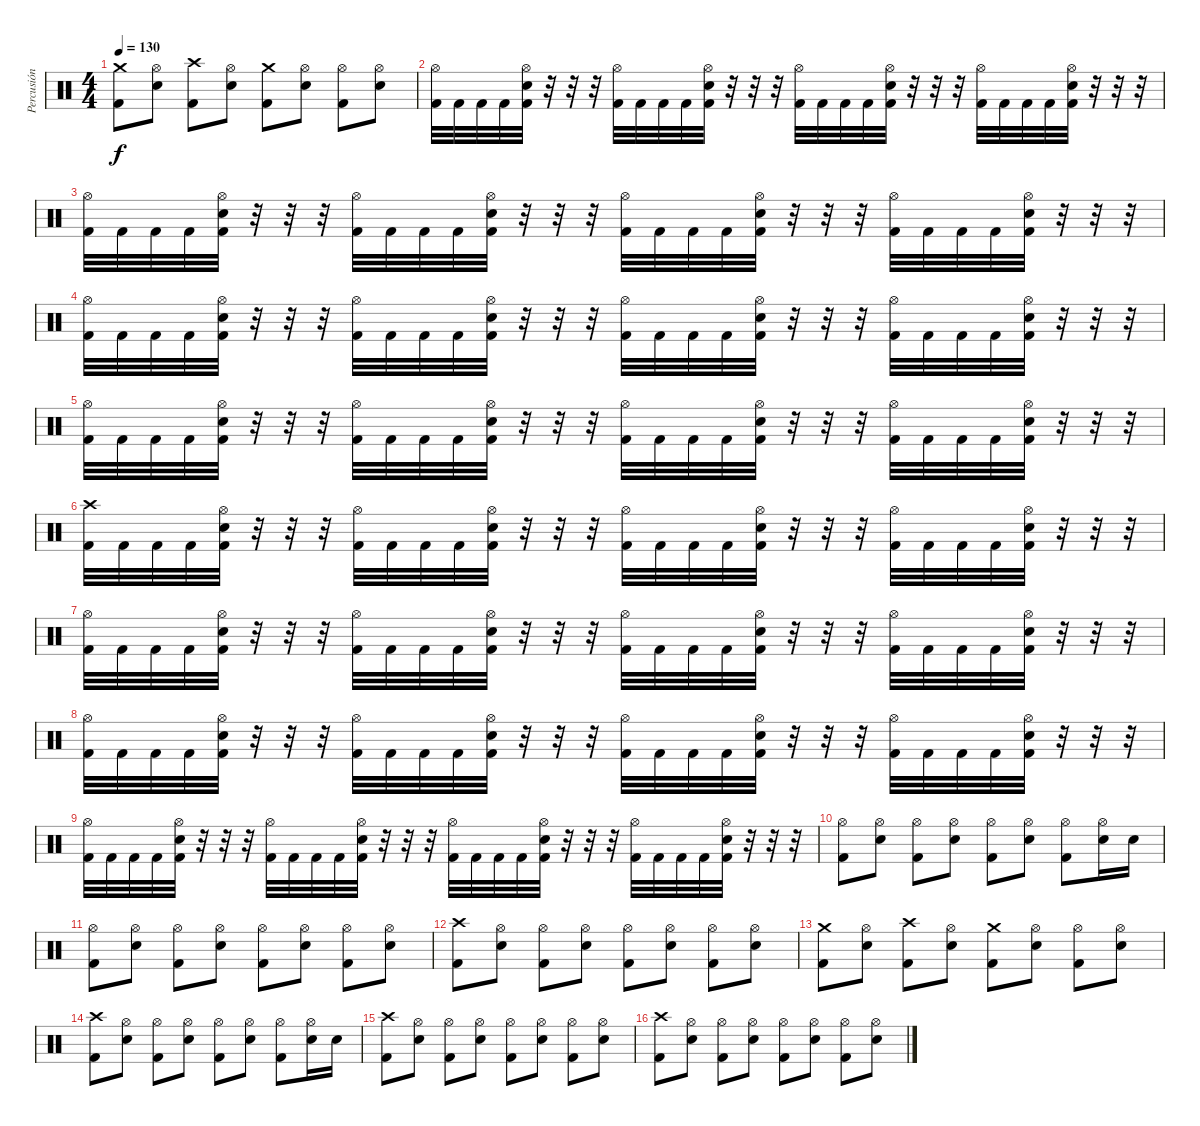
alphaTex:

\track ("Percusión" "Percusión") {instrument percussion}
\staff {score}
\articulation defaults
\ts (4 4)
\tempo 130
\clef neutral
\ks c
("Crash medium (hit)" "Kick (hit) 2").8{dy f} ("Hi-Hat (open)" "Snare (hit) 2").8 ("Crash high (hit)" "Kick (hit) 2").8 ("Hi-Hat (open)" "Snare (hit) 2").8 ("Crash medium (hit)" "Kick (hit) 2").8 ("Hi-Hat (open)" "Snare (hit) 2").8 ("Hi-Hat (open)" "Kick (hit) 2").8 ("Hi-Hat (open)" "Snare (hit) 2").8 |
("Hi-Hat (open)" "Kick (hit) 2").32 "Kick (hit) 2".32 "Kick (hit) 2".32 "Kick (hit) 2".32 ("Hi-Hat (open)" "Snare (hit) 2" "Kick (hit) 2").32 r.32 r.32 r.32 ("Hi-Hat (open)" "Kick (hit) 2").32 "Kick (hit) 2".32 "Kick (hit) 2".32 "Kick (hit) 2".32 ("Hi-Hat (open)" "Snare (hit) 2" "Kick (hit) 2").32 r.32 r.32 r.32 ("Hi-Hat (open)" "Kick (hit) 2").32 "Kick (hit) 2".32 "Kick (hit) 2".32 "Kick (hit) 2".32 ("Hi-Hat (open)" "Snare (hit) 2" "Kick (hit) 2").32 r.32 r.32 r.32 ("Hi-Hat (open)" "Kick (hit) 2").32 "Kick (hit) 2".32 "Kick (hit) 2".32 "Kick (hit) 2".32 ("Hi-Hat (open)" "Snare (hit) 2" "Kick (hit) 2").32 r.32 r.32 r.32 |
("Hi-Hat (open)" "Kick (hit) 2").32 "Kick (hit) 2".32 "Kick (hit) 2".32 "Kick (hit) 2".32 ("Hi-Hat (open)" "Snare (hit) 2" "Kick (hit) 2").32 r.32 r.32 r.32 ("Hi-Hat (open)" "Kick (hit) 2").32 "Kick (hit) 2".32 "Kick (hit) 2".32 "Kick (hit) 2".32 ("Hi-Hat (open)" "Snare (hit) 2" "Kick (hit) 2").32 r.32 r.32 r.32 ("Hi-Hat (open)" "Kick (hit) 2").32 "Kick (hit) 2".32 "Kick (hit) 2".32 "Kick (hit) 2".32 ("Hi-Hat (open)" "Snare (hit) 2" "Kick (hit) 2").32 r.32 r.32 r.32 ("Hi-Hat (open)" "Kick (hit) 2").32 "Kick (hit) 2".32 "Kick (hit) 2".32 "Kick (hit) 2".32 ("Hi-Hat (open)" "Snare (hit) 2" "Kick (hit) 2").32 r.32 r.32 r.32 |
("Hi-Hat (open)" "Kick (hit) 2").32 "Kick (hit) 2".32 "Kick (hit) 2".32 "Kick (hit) 2".32 ("Hi-Hat (open)" "Snare (hit) 2" "Kick (hit) 2").32 r.32 r.32 r.32 ("Hi-Hat (open)" "Kick (hit) 2").32 "Kick (hit) 2".32 "Kick (hit) 2".32 "Kick (hit) 2".32 ("Hi-Hat (open)" "Snare (hit) 2" "Kick (hit) 2").32 r.32 r.32 r.32 ("Hi-Hat (open)" "Kick (hit) 2").32 "Kick (hit) 2".32 "Kick (hit) 2".32 "Kick (hit) 2".32 ("Hi-Hat (open)" "Snare (hit) 2" "Kick (hit) 2").32 r.32 r.32 r.32 ("Hi-Hat (open)" "Kick (hit) 2").32 "Kick (hit) 2".32 "Kick (hit) 2".32 "Kick (hit) 2".32 ("Hi-Hat (open)" "Snare (hit) 2" "Kick (hit) 2").32 r.32 r.32 r.32 |
("Hi-Hat (open)" "Kick (hit) 2").32 "Kick (hit) 2".32 "Kick (hit) 2".32 "Kick (hit) 2".32 ("Hi-Hat (open)" "Snare (hit) 2" "Kick (hit) 2").32 r.32 r.32 r.32 ("Hi-Hat (open)" "Kick (hit) 2").32 "Kick (hit) 2".32 "Kick (hit) 2".32 "Kick (hit) 2".32 ("Hi-Hat (open)" "Snare (hit) 2" "Kick (hit) 2").32 r.32 r.32 r.32 ("Hi-Hat (open)" "Kick (hit) 2").32 "Kick (hit) 2".32 "Kick (hit) 2".32 "Kick (hit) 2".32 ("Hi-Hat (open)" "Snare (hit) 2" "Kick (hit) 2").32 r.32 r.32 r.32 ("Hi-Hat (open)" "Kick (hit) 2").32 "Kick (hit) 2".32 "Kick (hit) 2".32 "Kick (hit) 2".32 ("Hi-Hat (open)" "Snare (hit) 2" "Kick (hit) 2").32 r.32 r.32 r.32 |
("Crash high (hit)" "Kick (hit) 2").32 "Kick (hit) 2".32 "Kick (hit) 2".32 "Kick (hit) 2".32 ("Hi-Hat (open)" "Snare (hit) 2" "Kick (hit) 2").32 r.32 r.32 r.32 ("Hi-Hat (open)" "Kick (hit) 2").32 "Kick (hit) 2".32 "Kick (hit) 2".32 "Kick (hit) 2".32 ("Hi-Hat (open)" "Snare (hit) 2" "Kick (hit) 2").32 r.32 r.32 r.32 ("Hi-Hat (open)" "Kick (hit) 2").32 "Kick (hit) 2".32 "Kick (hit) 2".32 "Kick (hit) 2".32 ("Hi-Hat (open)" "Snare (hit) 2" "Kick (hit) 2").32 r.32 r.32 r.32 ("Hi-Hat (open)" "Kick (hit) 2").32 "Kick (hit) 2".32 "Kick (hit) 2".32 "Kick (hit) 2".32 ("Hi-Hat (open)" "Snare (hit) 2" "Kick (hit) 2").32 r.32 r.32 r.32 |
("Hi-Hat (open)" "Kick (hit) 2").32 "Kick (hit) 2".32 "Kick (hit) 2".32 "Kick (hit) 2".32 ("Hi-Hat (open)" "Snare (hit) 2" "Kick (hit) 2").32 r.32 r.32 r.32 ("Hi-Hat (open)" "Kick (hit) 2").32 "Kick (hit) 2".32 "Kick (hit) 2".32 "Kick (hit) 2".32 ("Hi-Hat (open)" "Snare (hit) 2" "Kick (hit) 2").32 r.32 r.32 r.32 ("Hi-Hat (open)" "Kick (hit) 2").32 "Kick (hit) 2".32 "Kick (hit) 2".32 "Kick (hit) 2".32 ("Hi-Hat (open)" "Snare (hit) 2" "Kick (hit) 2").32 r.32 r.32 r.32 ("Hi-Hat (open)" "Kick (hit) 2").32 "Kick (hit) 2".32 "Kick (hit) 2".32 "Kick (hit) 2".32 ("Hi-Hat (open)" "Snare (hit) 2" "Kick (hit) 2").32 r.32 r.32 r.32 |
("Hi-Hat (open)" "Kick (hit) 2").32 "Kick (hit) 2".32 "Kick (hit) 2".32 "Kick (hit) 2".32 ("Hi-Hat (open)" "Snare (hit) 2" "Kick (hit) 2").32 r.32 r.32 r.32 ("Hi-Hat (open)" "Kick (hit) 2").32 "Kick (hit) 2".32 "Kick (hit) 2".32 "Kick (hit) 2".32 ("Hi-Hat (open)" "Snare (hit) 2" "Kick (hit) 2").32 r.32 r.32 r.32 ("Hi-Hat (open)" "Kick (hit) 2").32 "Kick (hit) 2".32 "Kick (hit) 2".32 "Kick (hit) 2".32 ("Hi-Hat (open)" "Snare (hit) 2" "Kick (hit) 2").32 r.32 r.32 r.32 ("Hi-Hat (open)" "Kick (hit) 2").32 "Kick (hit) 2".32 "Kick (hit) 2".32 "Kick (hit) 2".32 ("Hi-Hat (open)" "Snare (hit) 2" "Kick (hit) 2").32 r.32 r.32 r.32 |
("Hi-Hat (open)" "Kick (hit) 2").32 "Kick (hit) 2".32 "Kick (hit) 2".32 "Kick (hit) 2".32 ("Hi-Hat (open)" "Snare (hit) 2" "Kick (hit) 2").32 r.32 r.32 r.32 ("Hi-Hat (open)" "Kick (hit) 2").32 "Kick (hit) 2".32 "Kick (hit) 2".32 "Kick (hit) 2".32 ("Hi-Hat (open)" "Snare (hit) 2" "Kick (hit) 2").32 r.32 r.32 r.32 ("Hi-Hat (open)" "Kick (hit) 2").32 "Kick (hit) 2".32 "Kick (hit) 2".32 "Kick (hit) 2".32 ("Hi-Hat (open)" "Snare (hit) 2" "Kick (hit) 2").32 r.32 r.32 r.32 ("Hi-Hat (open)" "Kick (hit) 2").32 "Kick (hit) 2".32 "Kick (hit) 2".32 "Kick (hit) 2".32 ("Hi-Hat (open)" "Snare (hit) 2" "Kick (hit) 2").32 r.32 r.32 r.32 |
("Hi-Hat (open)" "Kick (hit) 2").8 ("Hi-Hat (open)" "Snare (hit) 2").8 ("Hi-Hat (open)" "Kick (hit) 2").8 ("Hi-Hat (open)" "Snare (hit) 2").8 ("Hi-Hat (open)" "Kick (hit) 2").8 ("Hi-Hat (open)" "Snare (hit) 2").8 ("Hi-Hat (open)" "Kick (hit) 2").8 ("Hi-Hat (open)" "Snare (hit) 2").16 "Snare (hit) 2".16 |
("Hi-Hat (open)" "Kick (hit) 2").8 ("Hi-Hat (open)" "Snare (hit) 2").8 ("Hi-Hat (open)" "Kick (hit) 2").8 ("Hi-Hat (open)" "Snare (hit) 2").8 ("Hi-Hat (open)" "Kick (hit) 2").8 ("Hi-Hat (open)" "Snare (hit) 2").8 ("Hi-Hat (open)" "Kick (hit) 2").8 ("Hi-Hat (open)" "Snare (hit) 2").8 |
("Crash high (hit)" "Kick (hit) 2").8 ("Hi-Hat (open)" "Snare (hit) 2").8 ("Hi-Hat (open)" "Kick (hit) 2").8 ("Hi-Hat (open)" "Snare (hit) 2").8 ("Hi-Hat (open)" "Kick (hit) 2").8 ("Hi-Hat (open)" "Snare (hit) 2").8 ("Hi-Hat (open)" "Kick (hit) 2").8 ("Hi-Hat (open)" "Snare (hit) 2").8 |
("Crash medium (hit)" "Kick (hit) 2").8 ("Hi-Hat (open)" "Snare (hit) 2").8 ("Crash high (hit)" "Kick (hit) 2").8 ("Hi-Hat (open)" "Snare (hit) 2").8 ("Crash medium (hit)" "Kick (hit) 2").8 ("Hi-Hat (open)" "Snare (hit) 2").8 ("Hi-Hat (open)" "Kick (hit) 2").8 ("Hi-Hat (open)" "Snare (hit) 2").8 |
("Crash high (hit)" "Kick (hit) 2").8 ("Hi-Hat (open)" "Snare (hit) 2").8 ("Hi-Hat (open)" "Kick (hit) 2").8 ("Hi-Hat (open)" "Snare (hit) 2").8 ("Hi-Hat (open)" "Kick (hit) 2").8 ("Hi-Hat (open)" "Snare (hit) 2").8 ("Hi-Hat (open)" "Kick (hit) 2").8 ("Hi-Hat (open)" "Snare (hit) 2").16 "Snare (hit) 2".16 |
("Crash high (hit)" "Kick (hit) 2").8 ("Hi-Hat (open)" "Snare (hit) 2").8 ("Hi-Hat (open)" "Kick (hit) 2").8 ("Hi-Hat (open)" "Snare (hit) 2").8 ("Hi-Hat (open)" "Kick (hit) 2").8 ("Hi-Hat (open)" "Snare (hit) 2").8 ("Hi-Hat (open)" "Kick (hit) 2").8 ("Hi-Hat (open)" "Snare (hit) 2").8 |
("Crash high (hit)" "Kick (hit) 2").8 ("Hi-Hat (open)" "Snare (hit) 2").8 ("Hi-Hat (open)" "Kick (hit) 2").8 ("Hi-Hat (open)" "Snare (hit) 2").8 ("Hi-Hat (open)" "Kick (hit) 2").8 ("Hi-Hat (open)" "Snare (hit) 2").8 ("Hi-Hat (open)" "Kick (hit) 2").8 ("Hi-Hat (open)" "Snare (hit) 2").8
